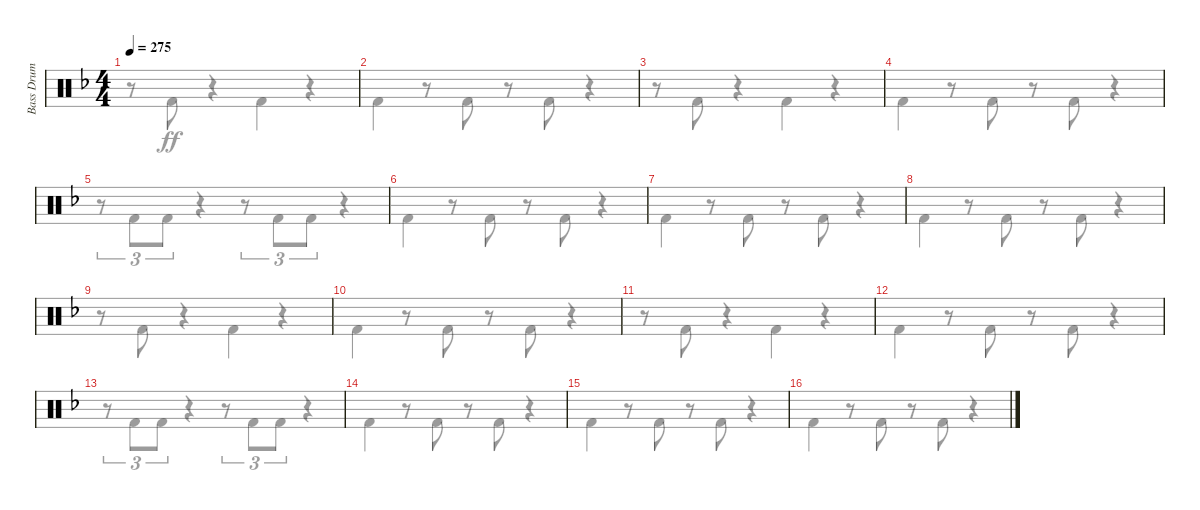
\track ("Bass Drum" "Bass Drum") {instrument percussion}
\staff {score}
\articulation defaults
\voice
\ts (4 4)
\tempo 275
\clef neutral
\ks dminor
|
|
|
|
|
|
|
|
|
|
|
|
|
|
|
\voice
\clef neutral
\ks dminor
r.8{dy ff} "Kick (hit) 2".8 r.4 "Kick (hit) 2".4 r.4 |
"Kick (hit) 2".4 r.8 "Kick (hit) 2".8 r.8 "Kick (hit) 2".8 r.4 |
r.8 "Kick (hit) 2".8 r.4 "Kick (hit) 2".4 r.4 |
"Kick (hit) 2".4 r.8 "Kick (hit) 2".8 r.8 "Kick (hit) 2".8 r.4 |
r.8{tu (3 2)} "Kick (hit) 2".8{tu (3 2)} "Kick (hit) 2".8{tu (3 2)} r.4 r.8{tu (3 2)} "Kick (hit) 2".8{tu (3 2)} "Kick (hit) 2".8{tu (3 2)} r.4 |
"Kick (hit) 2".4 r.8 "Kick (hit) 2".8 r.8 "Kick (hit) 2".8 r.4 |
"Kick (hit) 2".4 r.8 "Kick (hit) 2".8 r.8 "Kick (hit) 2".8 r.4 |
"Kick (hit) 2".4 r.8 "Kick (hit) 2".8 r.8 "Kick (hit) 2".8 r.4 |
r.8 "Kick (hit) 2".8 r.4 "Kick (hit) 2".4 r.4 |
"Kick (hit) 2".4 r.8 "Kick (hit) 2".8 r.8 "Kick (hit) 2".8 r.4 |
r.8 "Kick (hit) 2".8 r.4 "Kick (hit) 2".4 r.4 |
"Kick (hit) 2".4 r.8 "Kick (hit) 2".8 r.8 "Kick (hit) 2".8 r.4 |
r.8{tu (3 2)} "Kick (hit) 2".8{tu (3 2)} "Kick (hit) 2".8{tu (3 2)} r.4 r.8{tu (3 2)} "Kick (hit) 2".8{tu (3 2)} "Kick (hit) 2".8{tu (3 2)} r.4 |
"Kick (hit) 2".4 r.8 "Kick (hit) 2".8 r.8 "Kick (hit) 2".8 r.4 |
"Kick (hit) 2".4 r.8 "Kick (hit) 2".8 r.8 "Kick (hit) 2".8 r.4 |
"Kick (hit) 2".4 r.8 "Kick (hit) 2".8 r.8 "Kick (hit) 2".8 r.4
